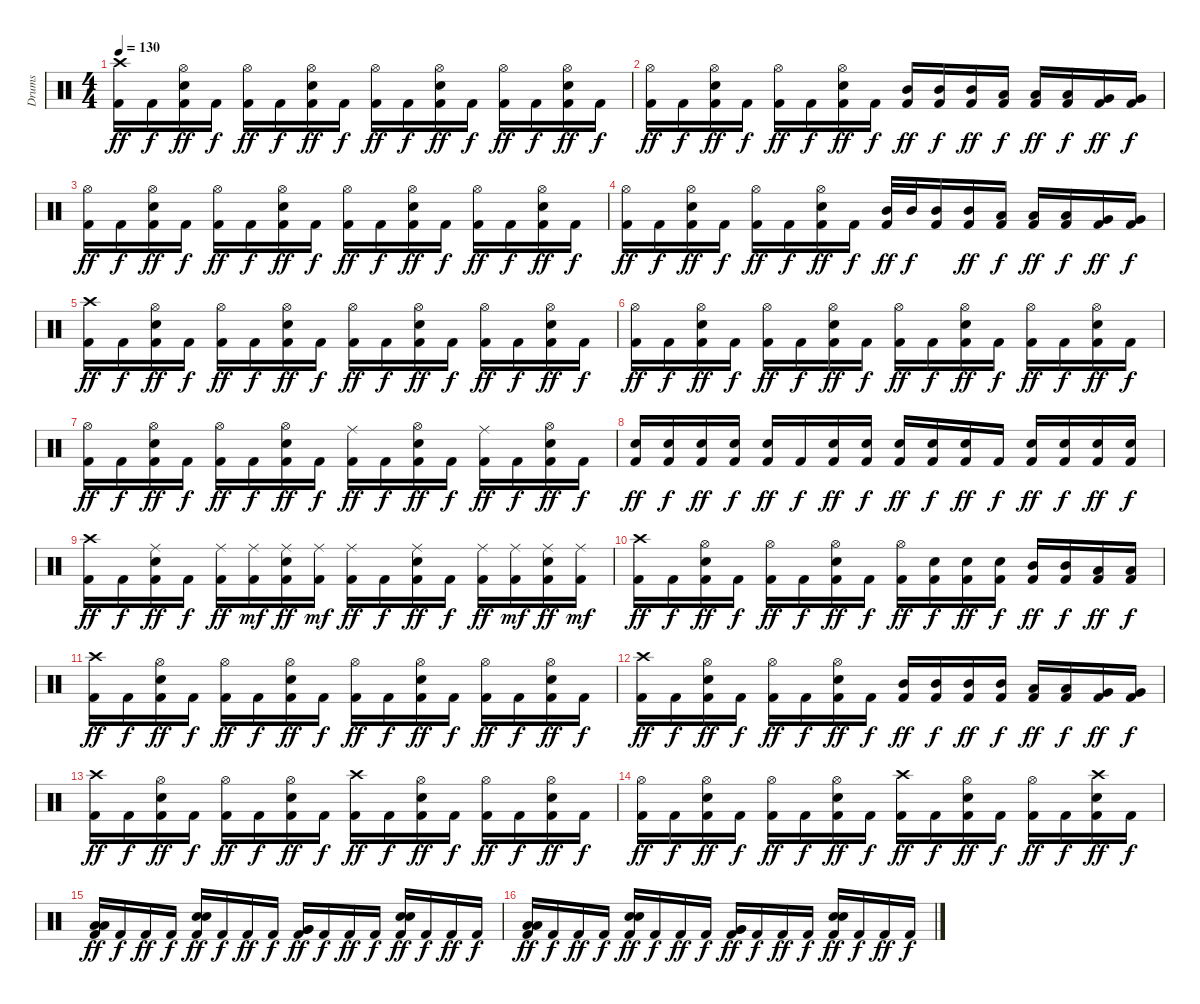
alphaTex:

\track ("Drums" "Drums") {instrument percussion}
\staff {score}
\articulation defaults
\ts (4 4)
\tempo 130
\clef neutral
\ks c
("Crash high (hit)" "Kick (hit) 2").16{dy ff} "Kick (hit) 2".16{dy f} ("Hi-Hat (open)" "Electric Snare (hit)" "Kick (hit) 2").16{dy ff} "Kick (hit) 2".16{dy f} ("Hi-Hat (open)" "Kick (hit) 2").16{dy ff} "Kick (hit) 2".16{dy f} ("Hi-Hat (open)" "Electric Snare (hit)" "Kick (hit) 2").16{dy ff} "Kick (hit) 2".16{dy f} ("Hi-Hat (open)" "Kick (hit) 2").16{dy ff} "Kick (hit) 2".16{dy f} ("Hi-Hat (open)" "Electric Snare (hit)" "Kick (hit) 2").16{dy ff} "Kick (hit) 2".16{dy f} ("Hi-Hat (open)" "Kick (hit) 2").16{dy ff} "Kick (hit) 2".16{dy f} ("Hi-Hat (open)" "Electric Snare (hit)" "Kick (hit) 2").16{dy ff} "Kick (hit) 2".16{dy f} |
("Hi-Hat (open)" "Kick (hit) 2").16{dy ff} "Kick (hit) 2".16{dy f} ("Hi-Hat (open)" "Electric Snare (hit)" "Kick (hit) 2").16{dy ff} "Kick (hit) 2".16{dy f} ("Hi-Hat (open)" "Kick (hit) 2").16{dy ff} "Kick (hit) 2".16{dy f} ("Hi-Hat (open)" "Electric Snare (hit)" "Kick (hit) 2").16{dy ff} "Kick (hit) 2".16{dy f} ("Mid Tom (hit)" "Kick (hit) 2").16{dy ff} ("Mid Tom (hit)" "Kick (hit) 2").16{dy f} ("Mid Tom (hit)" "Kick (hit) 2").16{dy ff} ("Low Tom (hit)" "Kick (hit) 2").16{dy f} ("Low Tom (hit)" "Kick (hit) 2").16{dy ff} ("Low Tom (hit)" "Kick (hit) 2").16{dy f} ("Very Low Tom (hit)" "Kick (hit) 2").16{dy ff} ("Very Low Tom (hit)" "Kick (hit) 2").16{dy f} |
("Hi-Hat (open)" "Kick (hit) 2").16{dy ff} "Kick (hit) 2".16{dy f} ("Hi-Hat (open)" "Electric Snare (hit)" "Kick (hit) 2").16{dy ff} "Kick (hit) 2".16{dy f} ("Hi-Hat (open)" "Kick (hit) 2").16{dy ff} "Kick (hit) 2".16{dy f} ("Hi-Hat (open)" "Electric Snare (hit)" "Kick (hit) 2").16{dy ff} "Kick (hit) 2".16{dy f} ("Hi-Hat (open)" "Kick (hit) 2").16{dy ff} "Kick (hit) 2".16{dy f} ("Hi-Hat (open)" "Electric Snare (hit)" "Kick (hit) 2").16{dy ff} "Kick (hit) 2".16{dy f} ("Hi-Hat (open)" "Kick (hit) 2").16{dy ff} "Kick (hit) 2".16{dy f} ("Hi-Hat (open)" "Electric Snare (hit)" "Kick (hit) 2").16{dy ff} "Kick (hit) 2".16{dy f} |
("Hi-Hat (open)" "Kick (hit) 2").16{dy ff} "Kick (hit) 2".16{dy f} ("Hi-Hat (open)" "Electric Snare (hit)" "Kick (hit) 2").16{dy ff} "Kick (hit) 2".16{dy f} ("Hi-Hat (open)" "Kick (hit) 2").16{dy ff} "Kick (hit) 2".16{dy f} ("Hi-Hat (open)" "Electric Snare (hit)" "Kick (hit) 2").16{dy ff} "Kick (hit) 2".16{dy f} ("Mid Tom (hit)" "Kick (hit) 2").32{dy ff} "Mid Tom (hit)".32{dy f} ("Mid Tom (hit)" "Kick (hit) 2").16 ("Mid Tom (hit)" "Kick (hit) 2").16{dy ff} ("Low Tom (hit)" "Kick (hit) 2").16{dy f} ("Low Tom (hit)" "Kick (hit) 2").16{dy ff} ("Low Tom (hit)" "Kick (hit) 2").16{dy f} ("Very Low Tom (hit)" "Kick (hit) 2").16{dy ff} ("Very Low Tom (hit)" "Kick (hit) 2").16{dy f} |
("Crash high (hit)" "Kick (hit) 2").16{dy ff} "Kick (hit) 2".16{dy f} ("Hi-Hat (open)" "Electric Snare (hit)" "Kick (hit) 2").16{dy ff} "Kick (hit) 2".16{dy f} ("Hi-Hat (open)" "Kick (hit) 2").16{dy ff} "Kick (hit) 2".16{dy f} ("Hi-Hat (open)" "Electric Snare (hit)" "Kick (hit) 2").16{dy ff} "Kick (hit) 2".16{dy f} ("Hi-Hat (open)" "Kick (hit) 2").16{dy ff} "Kick (hit) 2".16{dy f} ("Hi-Hat (open)" "Electric Snare (hit)" "Kick (hit) 2").16{dy ff} "Kick (hit) 2".16{dy f} ("Hi-Hat (open)" "Kick (hit) 2").16{dy ff} "Kick (hit) 2".16{dy f} ("Hi-Hat (open)" "Electric Snare (hit)" "Kick (hit) 2").16{dy ff} "Kick (hit) 2".16{dy f} |
("Hi-Hat (open)" "Kick (hit) 2").16{dy ff} "Kick (hit) 2".16{dy f} ("Hi-Hat (open)" "Electric Snare (hit)" "Kick (hit) 2").16{dy ff} "Kick (hit) 2".16{dy f} ("Hi-Hat (open)" "Kick (hit) 2").16{dy ff} "Kick (hit) 2".16{dy f} ("Hi-Hat (open)" "Electric Snare (hit)" "Kick (hit) 2").16{dy ff} "Kick (hit) 2".16{dy f} ("Hi-Hat (open)" "Kick (hit) 2").16{dy ff} "Kick (hit) 2".16{dy f} ("Hi-Hat (open)" "Electric Snare (hit)" "Kick (hit) 2").16{dy ff} "Kick (hit) 2".16{dy f} ("Hi-Hat (open)" "Kick (hit) 2").16{dy ff} "Kick (hit) 2".16{dy f} ("Hi-Hat (open)" "Electric Snare (hit)" "Kick (hit) 2").16{dy ff} "Kick (hit) 2".16{dy f} |
("Hi-Hat (open)" "Kick (hit) 2").16{dy ff} "Kick (hit) 2".16{dy f} ("Hi-Hat (open)" "Electric Snare (hit)" "Kick (hit) 2").16{dy ff} "Kick (hit) 2".16{dy f} ("Hi-Hat (open)" "Kick (hit) 2").16{dy ff} "Kick (hit) 2".16{dy f} ("Hi-Hat (open)" "Electric Snare (hit)" "Kick (hit) 2").16{dy ff} "Kick (hit) 2".16{dy f} ("Ride (middle)" "Kick (hit) 2").16{dy ff} "Kick (hit) 2".16{dy f} ("Hi-Hat (open)" "Electric Snare (hit)" "Kick (hit) 2").16{dy ff} "Kick (hit) 2".16{dy f} ("Ride (middle)" "Kick (hit) 2").16{dy ff} "Kick (hit) 2".16{dy f} ("Hi-Hat (open)" "Electric Snare (hit)" "Kick (hit) 2").16{dy ff} "Kick (hit) 2".16{dy f} |
("Electric Snare (hit)" "Kick (hit) 2").16{dy ff} ("Electric Snare (hit)" "Kick (hit) 2").16{dy f} ("Electric Snare (hit)" "Kick (hit) 2").16{dy ff} ("Electric Snare (hit)" "Kick (hit) 2").16{dy f} ("Electric Snare (hit)" "Kick (hit) 2").16{dy ff} "Kick (hit) 2".16{dy f} ("Electric Snare (hit)" "Kick (hit) 2").16{dy ff} ("Electric Snare (hit)" "Kick (hit) 2").16{dy f} ("Electric Snare (hit)" "Kick (hit) 2").16{dy ff} ("Electric Snare (hit)" "Kick (hit) 2").16{dy f} ("Electric Snare (hit)" "Kick (hit) 2").16{dy ff} "Kick (hit) 2".16{dy f} ("Electric Snare (hit)" "Kick (hit) 2").16{dy ff} ("Electric Snare (hit)" "Kick (hit) 2").16{dy f} ("Electric Snare (hit)" "Kick (hit) 2").16{dy ff} ("Electric Snare (hit)" "Kick (hit) 2").16{dy f} |
("Crash high (hit)" "Kick (hit) 2").16{dy ff} "Kick (hit) 2".16{dy f} ("Ride (middle)" "Electric Snare (hit)" "Kick (hit) 2").16{dy ff} "Kick (hit) 2".16{dy f} ("Ride (middle)" "Kick (hit) 2").16{dy ff} ("Ride (middle)" "Kick (hit) 2").16{dy mf} ("Ride (middle)" "Electric Snare (hit)" "Kick (hit) 2").16{dy ff} ("Ride (middle)" "Kick (hit) 2").16{dy mf} ("Ride (middle)" "Kick (hit) 2").16{dy ff} "Kick (hit) 2".16{dy f} ("Ride (middle)" "Electric Snare (hit)" "Kick (hit) 2").16{dy ff} "Kick (hit) 2".16{dy f} ("Ride (middle)" "Kick (hit) 2").16{dy ff} ("Ride (middle)" "Kick (hit) 2").16{dy mf} ("Ride (middle)" "Electric Snare (hit)" "Kick (hit) 2").16{dy ff} ("Ride (middle)" "Kick (hit) 2").16{dy mf} |
("Crash high (hit)" "Kick (hit) 2").16{dy ff} "Kick (hit) 2".16{dy f} ("Hi-Hat (open)" "Electric Snare (hit)" "Kick (hit) 2").16{dy ff} "Kick (hit) 2".16{dy f} ("Hi-Hat (open)" "Kick (hit) 2").16{dy ff} "Kick (hit) 2".16{dy f} ("Hi-Hat (open)" "Electric Snare (hit)" "Kick (hit) 2").16{dy ff} "Kick (hit) 2".16{dy f} ("Hi-Hat (open)" "Kick (hit) 2").16{dy ff} ("Electric Snare (hit)" "Kick (hit) 2").16{dy f} ("Electric Snare (hit)" "Kick (hit) 2").16{dy ff} ("Electric Snare (hit)" "Kick (hit) 2").16{dy f} ("Mid Tom (hit)" "Kick (hit) 2").16{dy ff} ("Mid Tom (hit)" "Kick (hit) 2").16{dy f} ("Low Tom (hit)" "Kick (hit) 2").16{dy ff} ("Low Tom (hit)" "Kick (hit) 2").16{dy f} |
("Crash high (hit)" "Kick (hit) 2").16{dy ff} "Kick (hit) 2".16{dy f} ("Hi-Hat (open)" "Electric Snare (hit)" "Kick (hit) 2").16{dy ff} "Kick (hit) 2".16{dy f} ("Hi-Hat (open)" "Kick (hit) 2").16{dy ff} "Kick (hit) 2".16{dy f} ("Hi-Hat (open)" "Electric Snare (hit)" "Kick (hit) 2").16{dy ff} "Kick (hit) 2".16{dy f} ("Hi-Hat (open)" "Kick (hit) 2").16{dy ff} "Kick (hit) 2".16{dy f} ("Hi-Hat (open)" "Electric Snare (hit)" "Kick (hit) 2").16{dy ff} "Kick (hit) 2".16{dy f} ("Hi-Hat (open)" "Kick (hit) 2").16{dy ff} "Kick (hit) 2".16{dy f} ("Hi-Hat (open)" "Electric Snare (hit)" "Kick (hit) 2").16{dy ff} "Kick (hit) 2".16{dy f} |
("Crash high (hit)" "Kick (hit) 2").16{dy ff} "Kick (hit) 2".16{dy f} ("Hi-Hat (open)" "Electric Snare (hit)" "Kick (hit) 2").16{dy ff} "Kick (hit) 2".16{dy f} ("Hi-Hat (open)" "Kick (hit) 2").16{dy ff} "Kick (hit) 2".16{dy f} ("Hi-Hat (open)" "Electric Snare (hit)" "Kick (hit) 2").16{dy ff} "Kick (hit) 2".16{dy f} ("Mid Tom (hit)" "Kick (hit) 2").16{dy ff} ("Mid Tom (hit)" "Kick (hit) 2").16{dy f} ("Mid Tom (hit)" "Kick (hit) 2").16{dy ff} ("Mid Tom (hit)" "Kick (hit) 2").16{dy f} ("Low Tom (hit)" "Kick (hit) 2").16{dy ff} ("Low Tom (hit)" "Kick (hit) 2").16{dy f} ("Very Low Tom (hit)" "Kick (hit) 2").16{dy ff} ("Very Low Tom (hit)" "Kick (hit) 2").16{dy f} |
("Crash high (hit)" "Kick (hit) 2").16{dy ff} "Kick (hit) 2".16{dy f} ("Hi-Hat (open)" "Electric Snare (hit)" "Kick (hit) 2").16{dy ff} "Kick (hit) 2".16{dy f} ("Hi-Hat (open)" "Kick (hit) 2").16{dy ff} "Kick (hit) 2".16{dy f} ("Hi-Hat (open)" "Electric Snare (hit)" "Kick (hit) 2").16{dy ff} "Kick (hit) 2".16{dy f} ("Crash high (hit)" "Kick (hit) 2").16{dy ff} "Kick (hit) 2".16{dy f} ("Hi-Hat (open)" "Electric Snare (hit)" "Kick (hit) 2").16{dy ff} "Kick (hit) 2".16{dy f} ("Hi-Hat (open)" "Kick (hit) 2").16{dy ff} "Kick (hit) 2".16{dy f} ("Hi-Hat (open)" "Electric Snare (hit)" "Kick (hit) 2").16{dy ff} "Kick (hit) 2".16{dy f} |
("Hi-Hat (open)" "Kick (hit) 2").16{dy ff} "Kick (hit) 2".16{dy f} ("Hi-Hat (open)" "Electric Snare (hit)" "Kick (hit) 2").16{dy ff} "Kick (hit) 2".16{dy f} ("Hi-Hat (open)" "Kick (hit) 2").16{dy ff} "Kick (hit) 2".16{dy f} ("Hi-Hat (open)" "Electric Snare (hit)" "Kick (hit) 2").16{dy ff} "Kick (hit) 2".16{dy f} ("Crash high (hit)" "Kick (hit) 2").16{dy ff} "Kick (hit) 2".16{dy f} ("Hi-Hat (open)" "Electric Snare (hit)" "Kick (hit) 2").16{dy ff} "Kick (hit) 2".16{dy f} ("Hi-Hat (open)" "Kick (hit) 2").16{dy ff} "Kick (hit) 2".16{dy f} ("Crash high (hit)" "Electric Snare (hit)" "Kick (hit) 2").16{dy ff} "Kick (hit) 2".16{dy f} |
("Low Tom (hit)" "Kick (hit) 2" "Low Tom (hit)").16{dy ff} "Kick (hit) 2".16{dy f} "Kick (hit) 2".16{dy ff} "Kick (hit) 2".16{dy f} ("Electric Snare (hit)" "Kick (hit) 2" "Electric Snare (hit)").16{dy ff} "Kick (hit) 2".16{dy f} "Kick (hit) 2".16{dy ff} "Kick (hit) 2".16{dy f} ("Very Low Tom (hit)" "Kick (hit) 2" "Very Low Tom (hit)").16{dy ff} "Kick (hit) 2".16{dy f} "Kick (hit) 2".16{dy ff} "Kick (hit) 2".16{dy f} ("Electric Snare (hit)" "Kick (hit) 2" "Electric Snare (hit)").16{dy ff} "Kick (hit) 2".16{dy f} "Kick (hit) 2".16{dy ff} "Kick (hit) 2".16{dy f} |
("Low Tom (hit)" "Kick (hit) 2" "Low Tom (hit)").16{dy ff} "Kick (hit) 2".16{dy f} "Kick (hit) 2".16{dy ff} "Kick (hit) 2".16{dy f} ("Electric Snare (hit)" "Kick (hit) 2" "Electric Snare (hit)").16{dy ff} "Kick (hit) 2".16{dy f} "Kick (hit) 2".16{dy ff} "Kick (hit) 2".16{dy f} ("Very Low Tom (hit)" "Kick (hit) 2" "Very Low Tom (hit)").16{dy ff} "Kick (hit) 2".16{dy f} "Kick (hit) 2".16{dy ff} "Kick (hit) 2".16{dy f} ("Electric Snare (hit)" "Kick (hit) 2" "Electric Snare (hit)").16{dy ff} "Kick (hit) 2".16{dy f} "Kick (hit) 2".16{dy ff} "Kick (hit) 2".16{dy f}
